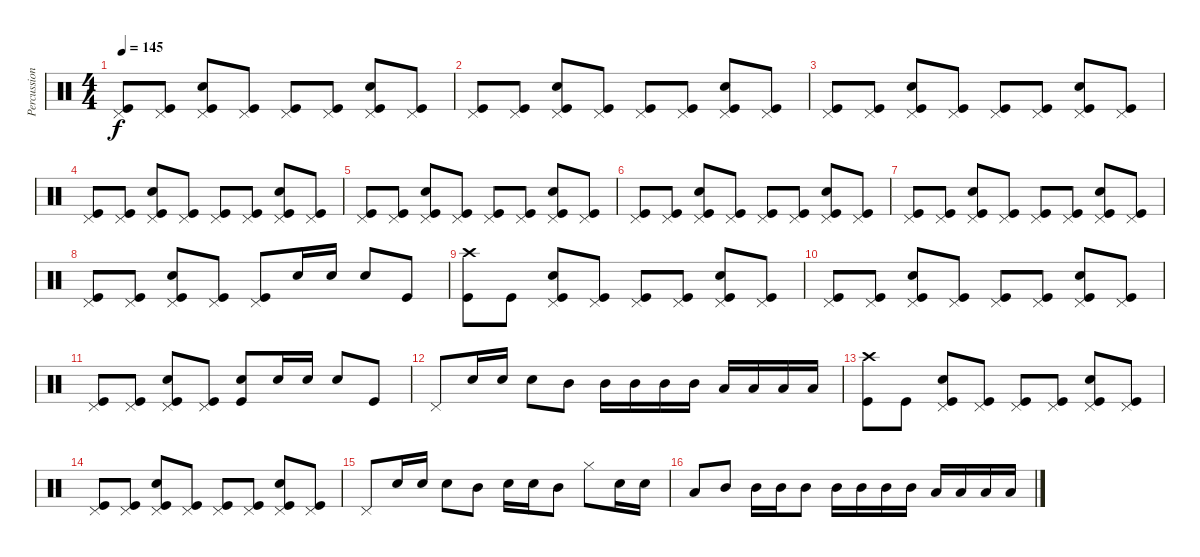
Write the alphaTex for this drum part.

\track ("Percussion" "Percussion") {instrument percussion}
\staff {score}
\articulation defaults
\ts (4 4)
\tempo 145
\clef neutral
\ks c
("Pedal Hi-Hat (hit)" "Kick (hit)").8{dy f} ("Pedal Hi-Hat (hit)" "Kick (hit)").8 ("Pedal Hi-Hat (hit)" "Snare (hit) 2" "Kick (hit)").8 ("Pedal Hi-Hat (hit)" "Kick (hit)").8 ("Pedal Hi-Hat (hit)" "Kick (hit)").8 ("Pedal Hi-Hat (hit)" "Kick (hit)").8 ("Pedal Hi-Hat (hit)" "Snare (hit) 2" "Kick (hit)").8 ("Pedal Hi-Hat (hit)" "Kick (hit)").8 |
("Pedal Hi-Hat (hit)" "Kick (hit)").8 ("Pedal Hi-Hat (hit)" "Kick (hit)").8 ("Pedal Hi-Hat (hit)" "Snare (hit) 2" "Kick (hit)").8 ("Pedal Hi-Hat (hit)" "Kick (hit)").8 ("Pedal Hi-Hat (hit)" "Kick (hit)").8 ("Pedal Hi-Hat (hit)" "Kick (hit)").8 ("Pedal Hi-Hat (hit)" "Snare (hit) 2" "Kick (hit)").8 ("Pedal Hi-Hat (hit)" "Kick (hit)").8 |
("Pedal Hi-Hat (hit)" "Kick (hit)").8 ("Pedal Hi-Hat (hit)" "Kick (hit)").8 ("Pedal Hi-Hat (hit)" "Snare (hit) 2" "Kick (hit)").8 ("Pedal Hi-Hat (hit)" "Kick (hit)").8 ("Pedal Hi-Hat (hit)" "Kick (hit)").8 ("Pedal Hi-Hat (hit)" "Kick (hit)").8 ("Pedal Hi-Hat (hit)" "Snare (hit) 2" "Kick (hit)").8 ("Pedal Hi-Hat (hit)" "Kick (hit)").8 |
("Pedal Hi-Hat (hit)" "Kick (hit)").8 ("Pedal Hi-Hat (hit)" "Kick (hit)").8 ("Pedal Hi-Hat (hit)" "Snare (hit) 2" "Kick (hit)").8 ("Pedal Hi-Hat (hit)" "Kick (hit)").8 ("Pedal Hi-Hat (hit)" "Kick (hit)").8 ("Pedal Hi-Hat (hit)" "Kick (hit)").8 ("Pedal Hi-Hat (hit)" "Snare (hit) 2" "Kick (hit)").8 ("Pedal Hi-Hat (hit)" "Kick (hit)").8 |
("Pedal Hi-Hat (hit)" "Kick (hit)").8 ("Pedal Hi-Hat (hit)" "Kick (hit)").8 ("Pedal Hi-Hat (hit)" "Snare (hit) 2" "Kick (hit)").8 ("Pedal Hi-Hat (hit)" "Kick (hit)").8 ("Pedal Hi-Hat (hit)" "Kick (hit)").8 ("Pedal Hi-Hat (hit)" "Kick (hit)").8 ("Pedal Hi-Hat (hit)" "Snare (hit) 2" "Kick (hit)").8 ("Pedal Hi-Hat (hit)" "Kick (hit)").8 |
("Pedal Hi-Hat (hit)" "Kick (hit)").8 ("Pedal Hi-Hat (hit)" "Kick (hit)").8 ("Pedal Hi-Hat (hit)" "Snare (hit) 2" "Kick (hit)").8 ("Pedal Hi-Hat (hit)" "Kick (hit)").8 ("Pedal Hi-Hat (hit)" "Kick (hit)").8 ("Pedal Hi-Hat (hit)" "Kick (hit)").8 ("Pedal Hi-Hat (hit)" "Snare (hit) 2" "Kick (hit)").8 ("Pedal Hi-Hat (hit)" "Kick (hit)").8 |
("Pedal Hi-Hat (hit)" "Kick (hit)").8 ("Pedal Hi-Hat (hit)" "Kick (hit)").8 ("Pedal Hi-Hat (hit)" "Snare (hit) 2" "Kick (hit)").8 ("Pedal Hi-Hat (hit)" "Kick (hit)").8 ("Pedal Hi-Hat (hit)" "Kick (hit)").8 ("Pedal Hi-Hat (hit)" "Kick (hit)").8 ("Pedal Hi-Hat (hit)" "Snare (hit) 2" "Kick (hit)").8 ("Pedal Hi-Hat (hit)" "Kick (hit)").8 |
("Pedal Hi-Hat (hit)" "Kick (hit)").8 ("Pedal Hi-Hat (hit)" "Kick (hit)").8 ("Pedal Hi-Hat (hit)" "Snare (hit) 2" "Kick (hit)").8 ("Pedal Hi-Hat (hit)" "Kick (hit)").8 ("Pedal Hi-Hat (hit)" "Kick (hit)").8 "Snare (hit) 2".16 "Snare (hit) 2".16 "Snare (hit) 2".8 "Kick (hit)".8 |
("Crash high (hit)" "Kick (hit)").8 "Kick (hit)".8 ("Pedal Hi-Hat (hit)" "Snare (hit) 2" "Kick (hit)").8 ("Pedal Hi-Hat (hit)" "Kick (hit)").8 ("Pedal Hi-Hat (hit)" "Kick (hit)").8 ("Pedal Hi-Hat (hit)" "Kick (hit)").8 ("Pedal Hi-Hat (hit)" "Snare (hit) 2" "Kick (hit)").8 ("Pedal Hi-Hat (hit)" "Kick (hit)").8 |
("Pedal Hi-Hat (hit)" "Kick (hit)").8 ("Pedal Hi-Hat (hit)" "Kick (hit)").8 ("Pedal Hi-Hat (hit)" "Snare (hit) 2" "Kick (hit)").8 ("Pedal Hi-Hat (hit)" "Kick (hit)").8 ("Pedal Hi-Hat (hit)" "Kick (hit)").8 ("Pedal Hi-Hat (hit)" "Kick (hit)").8 ("Pedal Hi-Hat (hit)" "Snare (hit) 2" "Kick (hit)").8 ("Pedal Hi-Hat (hit)" "Kick (hit)").8 |
("Pedal Hi-Hat (hit)" "Kick (hit)").8 ("Pedal Hi-Hat (hit)" "Kick (hit)").8 ("Pedal Hi-Hat (hit)" "Snare (hit) 2" "Kick (hit)").8 ("Pedal Hi-Hat (hit)" "Kick (hit)").8 ("Snare (hit) 2" "Kick (hit)").8 "Snare (hit) 2".16 "Snare (hit) 2".16 "Snare (hit) 2".8 "Kick (hit)".8 |
"Pedal Hi-Hat (hit)".8 "Snare (hit) 2".16 "Snare (hit) 2".16 "Snare (hit) 2".8 "Mid Tom (hit)".8 "Mid Tom (hit)".16 "Mid Tom (hit)".16 "Mid Tom (hit)".16 "Mid Tom (hit)".16 "Low Tom (hit)".16 "Low Tom (hit)".16 "Low Tom (hit)".16 "Low Tom (hit)".16 |
("Crash high (hit)" "Kick (hit)").8 "Kick (hit)".8 ("Pedal Hi-Hat (hit)" "Snare (hit) 2" "Kick (hit)").8 ("Pedal Hi-Hat (hit)" "Kick (hit)").8 ("Pedal Hi-Hat (hit)" "Kick (hit)").8 ("Pedal Hi-Hat (hit)" "Kick (hit)").8 ("Pedal Hi-Hat (hit)" "Snare (hit) 2" "Kick (hit)").8 ("Pedal Hi-Hat (hit)" "Kick (hit)").8 |
("Pedal Hi-Hat (hit)" "Kick (hit)").8 ("Pedal Hi-Hat (hit)" "Kick (hit)").8 ("Pedal Hi-Hat (hit)" "Snare (hit) 2" "Kick (hit)").8 ("Pedal Hi-Hat (hit)" "Kick (hit)").8 ("Pedal Hi-Hat (hit)" "Kick (hit)").8 ("Pedal Hi-Hat (hit)" "Kick (hit)").8 ("Pedal Hi-Hat (hit)" "Snare (hit) 2" "Kick (hit)").8 ("Pedal Hi-Hat (hit)" "Kick (hit)").8 |
"Pedal Hi-Hat (hit)".8 "Snare (hit) 2".16 "Snare (hit) 2".16 "Snare (hit) 2".8 "Mid Tom (hit)".8 "Snare (hit) 2".16 "Snare (hit) 2".16 "Mid Tom (hit)".8 "Hi-Hat (closed)".8 "Snare (hit) 2".16 "Snare (hit) 2".16 |
"Low Floor Tom (hit)".8 "Mid Tom (hit)".8 "Mid Tom (hit)".16 "Mid Tom (hit)".16 "Mid Tom (hit)".8 "Mid Tom (hit)".16 "Mid Tom (hit)".16 "Mid Tom (hit)".16 "Mid Tom (hit)".16 "Low Tom (hit)".16 "Low Tom (hit)".16 "Low Tom (hit)".16 "Low Tom (hit)".16
